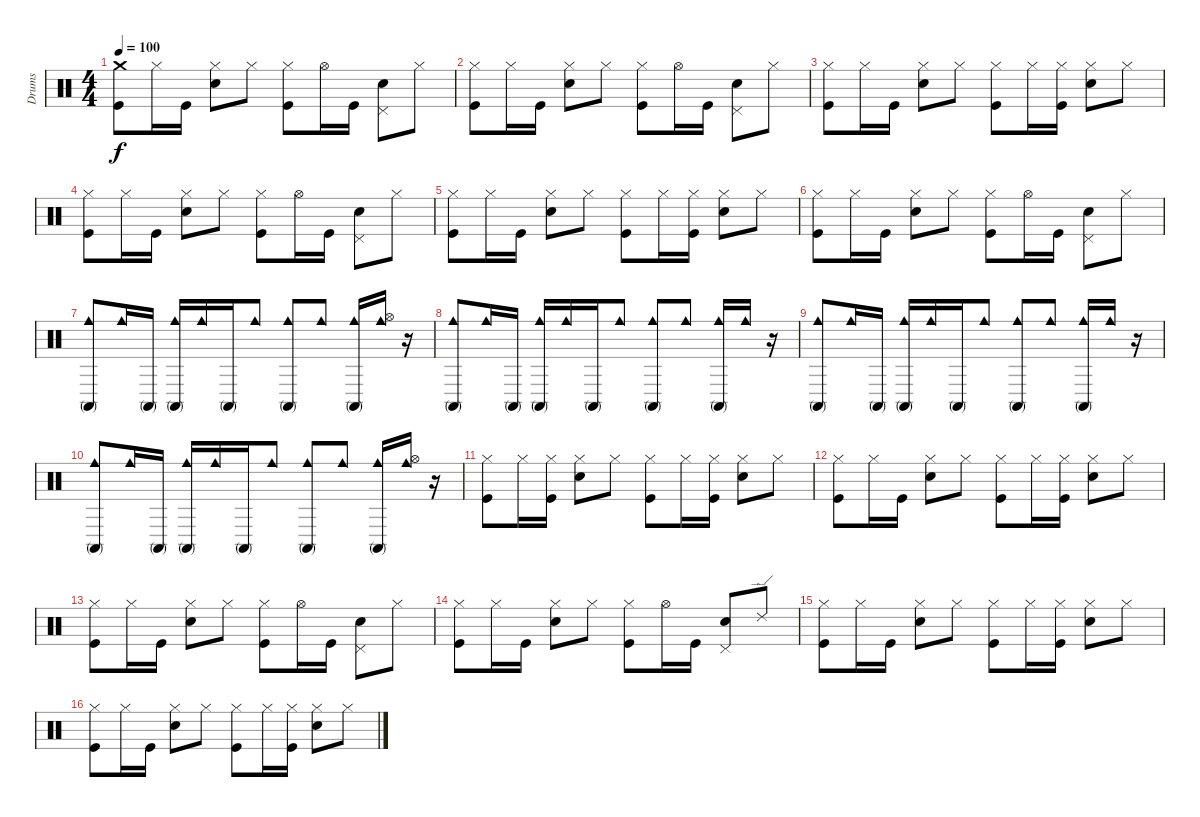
\track ("Drums" "Drums") {instrument percussion}
\staff {score}
\articulation defaults
\ts (4 4)
\tempo 100
\clef neutral
\ks c
("Crash medium (hit)" "Kick (hit)").8{dy f} "Hi-Hat (closed)".16 "Kick (hit)".16 ("Hi-Hat (closed)" "Snare (hit) 2").8 "Hi-Hat (closed)".8 ("Hi-Hat (closed)" "Kick (hit)").8 "Hi-Hat (open)".16 "Kick (hit)".16 ("Pedal Hi-Hat (hit)" "Snare (hit) 2").8 "Hi-Hat (closed)".8 |
("Hi-Hat (closed)" "Kick (hit)").8 "Hi-Hat (closed)".16 "Kick (hit)".16 ("Hi-Hat (closed)" "Snare (hit) 2").8 "Hi-Hat (closed)".8 ("Hi-Hat (closed)" "Kick (hit)").8 "Hi-Hat (open)".16 "Kick (hit)".16 ("Pedal Hi-Hat (hit)" "Snare (hit) 2").8 "Hi-Hat (closed)".8 |
("Hi-Hat (closed)" "Kick (hit)").8 "Hi-Hat (closed)".16 "Kick (hit)".16 ("Hi-Hat (closed)" "Snare (hit) 2").8 "Hi-Hat (closed)".8 ("Hi-Hat (closed)" "Kick (hit)").8 "Hi-Hat (closed)".16 ("Hi-Hat (closed)" "Kick (hit)").16 ("Hi-Hat (closed)" "Snare (hit) 2").8 "Hi-Hat (closed)".8 |
("Hi-Hat (closed)" "Kick (hit)").8 "Hi-Hat (closed)".16 "Kick (hit)".16 ("Hi-Hat (closed)" "Snare (hit) 2").8 "Hi-Hat (closed)".8 ("Hi-Hat (closed)" "Kick (hit)").8 "Hi-Hat (open)".16 "Kick (hit)".16 ("Pedal Hi-Hat (hit)" "Snare (hit) 2").8 "Hi-Hat (closed)".8 |
("Hi-Hat (closed)" "Kick (hit)").8 "Hi-Hat (closed)".16 "Kick (hit)".16 ("Hi-Hat (closed)" "Snare (hit) 2").8 "Hi-Hat (closed)".8 ("Hi-Hat (closed)" "Kick (hit)").8 "Hi-Hat (closed)".16 ("Hi-Hat (closed)" "Kick (hit)").16 ("Hi-Hat (closed)" "Snare (hit) 2").8 "Hi-Hat (closed)".8 |
("Hi-Hat (closed)" "Kick (hit)").8 "Hi-Hat (closed)".16 "Kick (hit)".16 ("Hi-Hat (closed)" "Snare (hit) 2").8 "Hi-Hat (closed)".8 ("Hi-Hat (closed)" "Kick (hit)").8 "Hi-Hat (open)".16 "Kick (hit)".16 ("Pedal Hi-Hat (hit)" "Snare (hit) 2").8 "Hi-Hat (closed)".8 |
("Cowbell medium (hit)" "Conga high (mute)").8 "Cowbell medium (hit)".16 "Conga high (mute)".16 ("Cowbell medium (hit)" "Conga high (mute)").16 "Cowbell medium (hit)".16 "Conga high (mute)".16 "Cowbell medium (hit)".8 ("Cowbell medium (hit)" "Conga high (mute)").8 "Cowbell medium (hit)".8 ("Cowbell medium (hit)" "Conga high (mute)").16 ("Cowbell medium (hit)" "Hi-Hat (open)").16 r.16 |
("Cowbell medium (hit)" "Conga high (mute)").8 "Cowbell medium (hit)".16 "Conga high (mute)".16 ("Cowbell medium (hit)" "Conga high (mute)").16 "Cowbell medium (hit)".16 "Conga high (mute)".16 "Cowbell medium (hit)".8 ("Cowbell medium (hit)" "Conga high (mute)").8 "Cowbell medium (hit)".8 ("Cowbell medium (hit)" "Conga high (mute)").16 "Cowbell medium (hit)".16 r.16 |
("Cowbell medium (hit)" "Conga high (mute)").8 "Cowbell medium (hit)".16 "Conga high (mute)".16 ("Cowbell medium (hit)" "Conga high (mute)").16 "Cowbell medium (hit)".16 "Conga high (mute)".16 "Cowbell medium (hit)".8 ("Cowbell medium (hit)" "Conga high (mute)").8 "Cowbell medium (hit)".8 ("Cowbell medium (hit)" "Conga high (mute)").16 "Cowbell medium (hit)".16 r.16 |
("Cowbell medium (hit)" "Conga high (mute)").8 "Cowbell medium (hit)".16 "Conga high (mute)".16 ("Cowbell medium (hit)" "Conga high (mute)").16 "Cowbell medium (hit)".16 "Conga high (mute)".16 "Cowbell medium (hit)".8 ("Cowbell medium (hit)" "Conga high (mute)").8 "Cowbell medium (hit)".8 ("Cowbell medium (hit)" "Conga high (mute)").16 ("Cowbell medium (hit)" "Hi-Hat (open)").16 r.16 |
("Hi-Hat (closed)" "Kick (hit)").8 "Hi-Hat (closed)".16 ("Hi-Hat (closed)" "Kick (hit)").16 ("Hi-Hat (closed)" "Snare (hit) 2").8 "Hi-Hat (closed)".8 ("Hi-Hat (closed)" "Kick (hit)").8 "Hi-Hat (closed)".16 ("Hi-Hat (closed)" "Kick (hit)").16 ("Hi-Hat (closed)" "Snare (hit) 2").8 "Hi-Hat (closed)".8 |
("Hi-Hat (closed)" "Kick (hit)").8 "Hi-Hat (closed)".16 "Kick (hit)".16 ("Hi-Hat (closed)" "Snare (hit) 2").8 "Hi-Hat (closed)".8 ("Hi-Hat (closed)" "Kick (hit)").8 "Hi-Hat (closed)".16 ("Hi-Hat (closed)" "Kick (hit)").16 ("Hi-Hat (closed)" "Snare (hit) 2").8 "Hi-Hat (closed)".8 |
("Hi-Hat (closed)" "Kick (hit)").8 "Hi-Hat (closed)".16 "Kick (hit)".16 ("Hi-Hat (closed)" "Snare (hit) 2").8 "Hi-Hat (closed)".8 ("Hi-Hat (closed)" "Kick (hit)").8 "Hi-Hat (open)".16 "Kick (hit)".16 ("Pedal Hi-Hat (hit)" "Snare (hit) 2").8 "Hi-Hat (closed)".8 |
("Hi-Hat (closed)" "Kick (hit)").8 "Hi-Hat (closed)".16 "Kick (hit)".16 ("Hi-Hat (closed)" "Snare (hit) 2").8 "Hi-Hat (closed)".8 ("Hi-Hat (closed)" "Kick (hit)").8 "Hi-Hat (open)".16 "Kick (hit)".16 ("Pedal Hi-Hat (hit)" "Snare (hit) 2").8 "Ride (edge) 2".8 |
("Hi-Hat (closed)" "Kick (hit)").8 "Hi-Hat (closed)".16 "Kick (hit)".16 ("Hi-Hat (closed)" "Snare (hit) 2").8 "Hi-Hat (closed)".8 ("Hi-Hat (closed)" "Kick (hit)").8 "Hi-Hat (closed)".16 ("Hi-Hat (closed)" "Kick (hit)").16 ("Hi-Hat (closed)" "Snare (hit) 2").8 "Hi-Hat (closed)".8 |
("Hi-Hat (closed)" "Kick (hit)").8 "Hi-Hat (closed)".16 "Kick (hit)".16 ("Hi-Hat (closed)" "Snare (hit) 2").8 "Hi-Hat (closed)".8 ("Hi-Hat (closed)" "Kick (hit)").8 "Hi-Hat (closed)".16 ("Hi-Hat (closed)" "Kick (hit)").16 ("Hi-Hat (closed)" "Snare (hit) 2").8 "Hi-Hat (closed)".8
